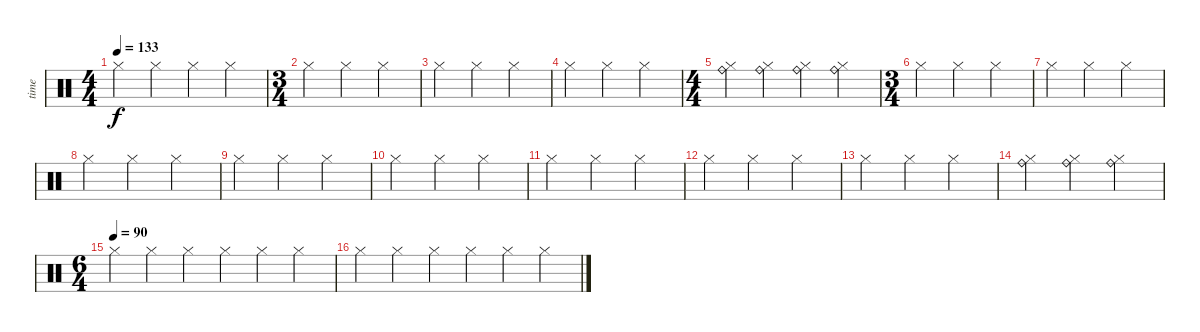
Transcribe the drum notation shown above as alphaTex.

\track ("time" "time") {instrument percussion}
\staff {score}
\articulation defaults
\ts (4 4)
\tempo 133
\clef neutral
\ks c "Hi-Hat (closed)".4{dy f} "Hi-Hat (closed)".4 "Hi-Hat (closed)".4 "Hi-Hat (closed)".4
|
\ts (3 4)
"Hi-Hat (closed)".4 "Hi-Hat (closed)".4 "Hi-Hat (closed)".4 |
"Hi-Hat (closed)".4 "Hi-Hat (closed)".4 "Hi-Hat (closed)".4 |
"Hi-Hat (closed)".4 "Hi-Hat (closed)".4 "Hi-Hat (closed)".4 |
\ts (4 4)
("Ride (bell)" "Hi-Hat (closed)").4 ("Ride (bell)" "Hi-Hat (closed)").4 ("Ride (bell)" "Hi-Hat (closed)").4 ("Ride (bell)" "Hi-Hat (closed)").4 |
\ts (3 4)
"Hi-Hat (closed)".4 "Hi-Hat (closed)".4 "Hi-Hat (closed)".4 |
"Hi-Hat (closed)".4 "Hi-Hat (closed)".4 "Hi-Hat (closed)".4 |
"Hi-Hat (closed)".4 "Hi-Hat (closed)".4 "Hi-Hat (closed)".4 |
"Hi-Hat (closed)".4 "Hi-Hat (closed)".4 "Hi-Hat (closed)".4 |
"Hi-Hat (closed)".4 "Hi-Hat (closed)".4 "Hi-Hat (closed)".4 |
"Hi-Hat (closed)".4 "Hi-Hat (closed)".4 "Hi-Hat (closed)".4 |
"Hi-Hat (closed)".4 "Hi-Hat (closed)".4 "Hi-Hat (closed)".4 |
"Hi-Hat (closed)".4 "Hi-Hat (closed)".4 "Hi-Hat (closed)".4 |
("Ride (bell)" "Hi-Hat (closed)").4 ("Ride (bell)" "Hi-Hat (closed)").4 ("Ride (bell)" "Hi-Hat (closed)").4 |
\ts (6 4)
\tempo (90)
"Hi-Hat (closed)".4 "Hi-Hat (closed)".4 "Hi-Hat (closed)".4 "Hi-Hat (closed)".4 "Hi-Hat (closed)".4 "Hi-Hat (closed)".4 |
"Hi-Hat (closed)".4 "Hi-Hat (closed)".4 "Hi-Hat (closed)".4 "Hi-Hat (closed)".4 "Hi-Hat (closed)".4 "Hi-Hat (closed)".4
